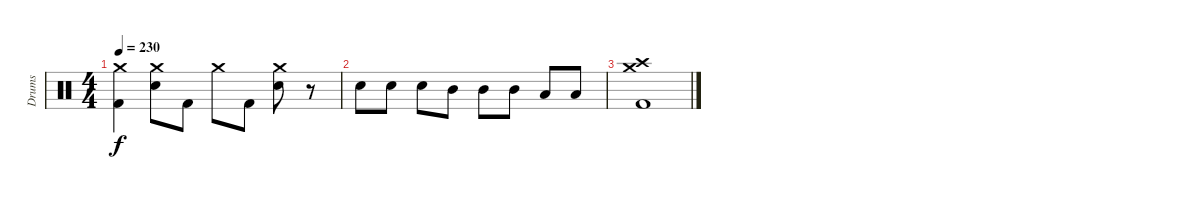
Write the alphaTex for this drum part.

\track ("Drums" "Drums") {instrument percussion}
\staff {score}
\articulation defaults
\ts (4 4)
\tempo 230
\clef neutral
\ks c
("Kick (hit) 2" "Crash medium (hit)").4{dy f} ("Electric Snare (hit)" "Crash medium (hit)").8 "Kick (hit) 2".8 "Crash medium (hit)".8 "Kick (hit) 2".8 ("Electric Snare (hit)" "Crash medium (hit)").8 r.8 |
"Electric Snare (hit)".8 "Electric Snare (hit)".8 "Electric Snare (hit)".8 "Mid Tom (hit)".8 "Mid Tom (hit)".8 "Mid Tom (hit)".8 "Low Tom (hit)".8 "Low Tom (hit)".8 |
("Kick (hit) 2" "Crash high (hit)" "Crash medium (hit)").1
